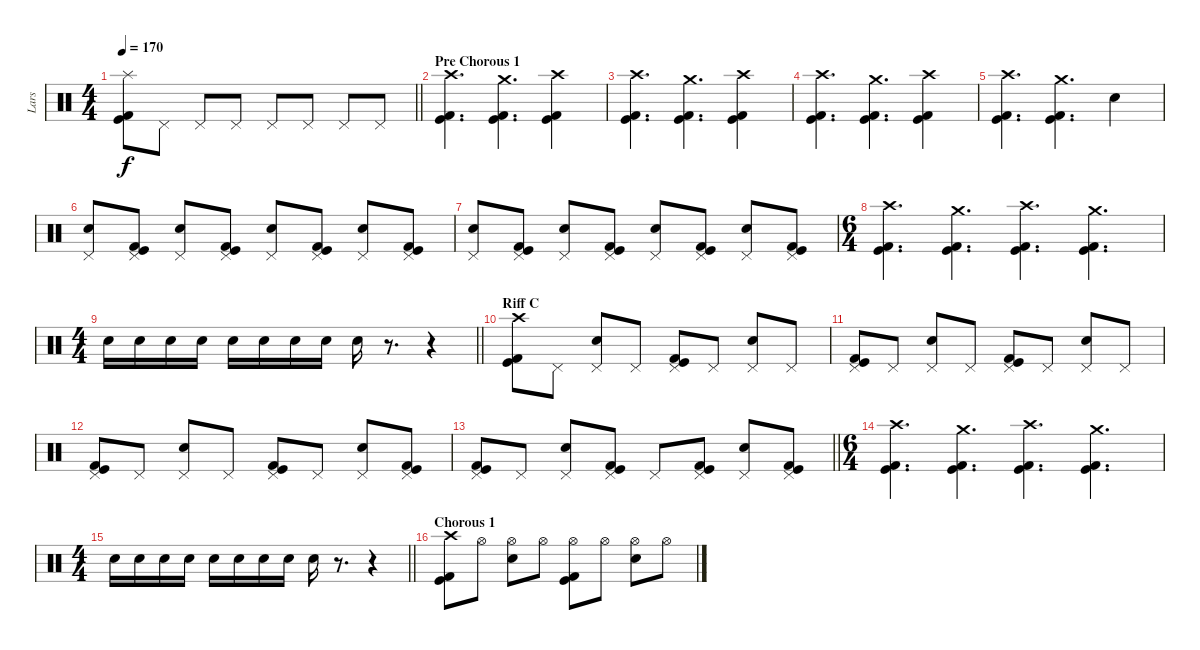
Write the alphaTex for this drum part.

\track ("Lars" "Lars") {instrument percussion}
\staff {score}
\articulation defaults
\ts (4 4)
\tempo 170
\clef neutral
\barLineRight lightlight
\ks c
("Splash (hit)" "Kick (hit)" "Kick (hit) 2").8{dy f} "Pedal Hi-Hat (hit)".8 "Pedal Hi-Hat (hit)".8 "Pedal Hi-Hat (hit)".8 "Pedal Hi-Hat (hit)".8 "Pedal Hi-Hat (hit)".8 "Pedal Hi-Hat (hit)".8 "Pedal Hi-Hat (hit)".8 |
\section ("" "Pre Chorous 1")
("Crash high (hit)" "Kick (hit)" "Kick (hit) 2").4{d} ("Crash medium (hit)" "Kick (hit)" "Kick (hit) 2").4{d} ("Crash high (hit)" "Kick (hit)" "Kick (hit) 2").4 |
("Crash high (hit)" "Kick (hit)" "Kick (hit) 2").4{d} ("Crash medium (hit)" "Kick (hit)" "Kick (hit) 2").4{d} ("Crash high (hit)" "Kick (hit)" "Kick (hit) 2").4 |
("Crash high (hit)" "Kick (hit)" "Kick (hit) 2").4{d} ("Crash medium (hit)" "Kick (hit)" "Kick (hit) 2").4{d} ("Crash high (hit)" "Kick (hit)" "Kick (hit) 2").4 |
("Crash high (hit)" "Kick (hit)" "Kick (hit) 2").4{d} ("Crash medium (hit)" "Kick (hit)" "Kick (hit) 2").4{d} "Electric Snare (hit)".4 |
("Pedal Hi-Hat (hit)" "Electric Snare (hit)").8 ("Pedal Hi-Hat (hit)" "Kick (hit)" "Kick (hit) 2").8 ("Pedal Hi-Hat (hit)" "Electric Snare (hit)").8 ("Pedal Hi-Hat (hit)" "Kick (hit)" "Kick (hit) 2").8 ("Pedal Hi-Hat (hit)" "Electric Snare (hit)").8 ("Pedal Hi-Hat (hit)" "Kick (hit)" "Kick (hit) 2").8 ("Pedal Hi-Hat (hit)" "Electric Snare (hit)").8 ("Pedal Hi-Hat (hit)" "Kick (hit)" "Kick (hit) 2").8 |
("Pedal Hi-Hat (hit)" "Electric Snare (hit)").8 ("Pedal Hi-Hat (hit)" "Kick (hit)" "Kick (hit) 2").8 ("Pedal Hi-Hat (hit)" "Electric Snare (hit)").8 ("Pedal Hi-Hat (hit)" "Kick (hit)" "Kick (hit) 2").8 ("Pedal Hi-Hat (hit)" "Electric Snare (hit)").8 ("Pedal Hi-Hat (hit)" "Kick (hit)" "Kick (hit) 2").8 ("Pedal Hi-Hat (hit)" "Electric Snare (hit)").8 ("Pedal Hi-Hat (hit)" "Kick (hit)" "Kick (hit) 2").8 |
\ts (6 4)
("Crash high (hit)" "Kick (hit)" "Kick (hit) 2").4{d} ("Crash medium (hit)" "Kick (hit)" "Kick (hit) 2").4{d} ("Crash high (hit)" "Kick (hit)" "Kick (hit) 2").4{d} ("Crash medium (hit)" "Kick (hit)" "Kick (hit) 2").4{d} |
\ts (4 4)
\barLineRight lightlight "Electric Snare (hit)".16 "Electric Snare (hit)".16 "Electric Snare (hit)".16 "Electric Snare (hit)".16 "Electric Snare (hit)".16 "Electric Snare (hit)".16 "Electric Snare (hit)".16 "Electric Snare (hit)".16 "Electric Snare (hit)".16
r.8{d} r.4 |
\section ("" "Riff C")
("Crash high (hit)" "Kick (hit)" "Kick (hit) 2").8 "Pedal Hi-Hat (hit)".8 ("Pedal Hi-Hat (hit)" "Electric Snare (hit)").8 "Pedal Hi-Hat (hit)".8 ("Pedal Hi-Hat (hit)" "Kick (hit)" "Kick (hit) 2").8 "Pedal Hi-Hat (hit)".8 ("Pedal Hi-Hat (hit)" "Electric Snare (hit)").8 "Pedal Hi-Hat (hit)".8 |
("Pedal Hi-Hat (hit)" "Kick (hit)" "Kick (hit) 2").8 "Pedal Hi-Hat (hit)".8 ("Pedal Hi-Hat (hit)" "Electric Snare (hit)").8 "Pedal Hi-Hat (hit)".8 ("Pedal Hi-Hat (hit)" "Kick (hit)" "Kick (hit) 2").8 "Pedal Hi-Hat (hit)".8 ("Pedal Hi-Hat (hit)" "Electric Snare (hit)").8 "Pedal Hi-Hat (hit)".8 |
("Pedal Hi-Hat (hit)" "Kick (hit)" "Kick (hit) 2").8 "Pedal Hi-Hat (hit)".8 ("Pedal Hi-Hat (hit)" "Electric Snare (hit)").8 "Pedal Hi-Hat (hit)".8 ("Pedal Hi-Hat (hit)" "Kick (hit)" "Kick (hit) 2").8 "Pedal Hi-Hat (hit)".8 ("Pedal Hi-Hat (hit)" "Electric Snare (hit)").8 ("Pedal Hi-Hat (hit)" "Kick (hit)" "Kick (hit) 2").8 |
\barLineRight lightlight
("Pedal Hi-Hat (hit)" "Kick (hit)" "Kick (hit) 2").8 "Pedal Hi-Hat (hit)".8 ("Pedal Hi-Hat (hit)" "Electric Snare (hit)").8 ("Pedal Hi-Hat (hit)" "Kick (hit)" "Kick (hit) 2").8 "Pedal Hi-Hat (hit)".8 ("Pedal Hi-Hat (hit)" "Kick (hit)" "Kick (hit) 2").8 ("Pedal Hi-Hat (hit)" "Electric Snare (hit)").8 ("Pedal Hi-Hat (hit)" "Kick (hit)" "Kick (hit) 2").8 |
\ts (6 4)
("Crash high (hit)" "Kick (hit)" "Kick (hit) 2").4{d} ("Crash medium (hit)" "Kick (hit)" "Kick (hit) 2").4{d} ("Crash high (hit)" "Kick (hit)" "Kick (hit) 2").4{d} ("Crash medium (hit)" "Kick (hit)" "Kick (hit) 2").4{d} |
\ts (4 4)
\barLineRight lightlight "Electric Snare (hit)".16 "Electric Snare (hit)".16 "Electric Snare (hit)".16 "Electric Snare (hit)".16 "Electric Snare (hit)".16 "Electric Snare (hit)".16 "Electric Snare (hit)".16 "Electric Snare (hit)".16 "Electric Snare (hit)".16
r.8{d} r.4 |
\section ("" "Chorous 1")
("Crash high (hit)" "Kick (hit)" "Kick (hit) 2").8 "Hi-Hat (open)".8 ("Hi-Hat (open)" "Electric Snare (hit)").8 "Hi-Hat (open)".8 ("Hi-Hat (open)" "Kick (hit)" "Kick (hit) 2").8 "Hi-Hat (open)".8 ("Hi-Hat (open)" "Electric Snare (hit)").8 "Hi-Hat (open)".8
